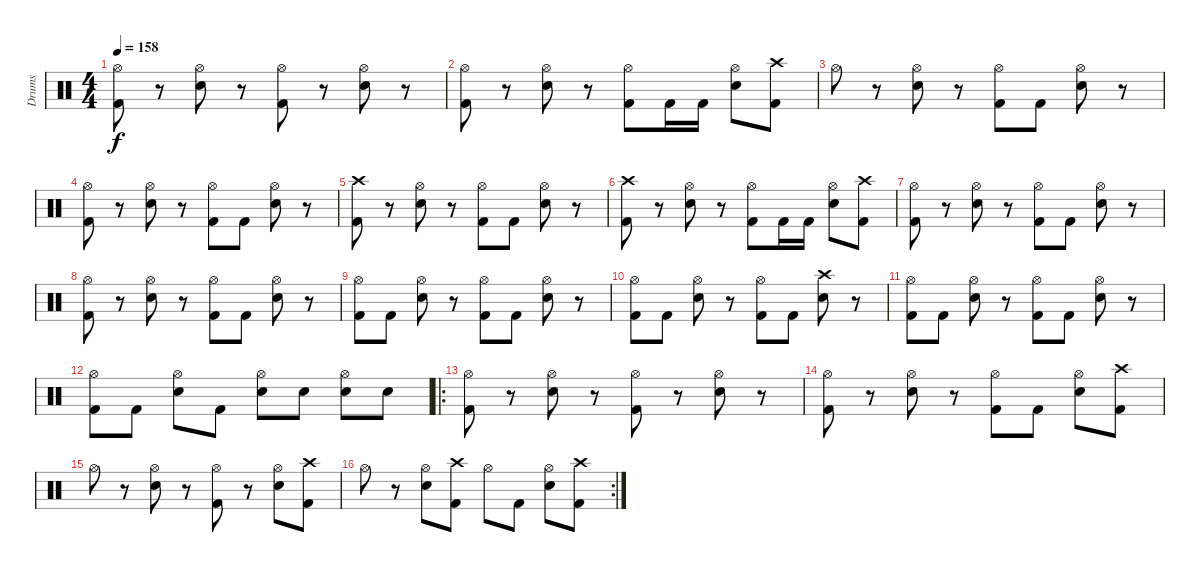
\track ("Drums" "Drums") {instrument percussion}
\staff {score}
\articulation defaults
\ts (4 4)
\tempo 158
\clef neutral
\ks c
("Hi-Hat (open)" "Kick (hit) 2").8{dy f} r.8 ("Hi-Hat (open)" "Snare (hit) 2").8 r.8 ("Hi-Hat (open)" "Kick (hit) 2").8 r.8 ("Hi-Hat (open)" "Snare (hit) 2").8 r.8 |
("Hi-Hat (open)" "Kick (hit) 2").8 r.8 ("Hi-Hat (open)" "Snare (hit) 2").8 r.8 ("Hi-Hat (open)" "Kick (hit) 2").8 "Kick (hit) 2".16 "Kick (hit) 2".16 ("Hi-Hat (open)" "Snare (hit) 2").8 ("Crash high (hit)" "Kick (hit) 2").8 |
"Hi-Hat (open)".8 r.8 ("Hi-Hat (open)" "Snare (hit) 2").8 r.8 ("Hi-Hat (open)" "Kick (hit) 2").8 "Kick (hit) 2".8 ("Hi-Hat (open)" "Snare (hit) 2").8 r.8 |
("Hi-Hat (open)" "Kick (hit) 2").8 r.8 ("Hi-Hat (open)" "Snare (hit) 2").8 r.8 ("Hi-Hat (open)" "Kick (hit) 2").8 "Kick (hit) 2".8 ("Hi-Hat (open)" "Snare (hit) 2").8 r.8 |
("Crash high (hit)" "Kick (hit) 2").8 r.8 ("Hi-Hat (open)" "Snare (hit) 2").8 r.8 ("Hi-Hat (open)" "Kick (hit) 2").8 "Kick (hit) 2".8 ("Hi-Hat (open)" "Snare (hit) 2").8 r.8 |
("Crash high (hit)" "Kick (hit) 2").8 r.8 ("Hi-Hat (open)" "Snare (hit) 2").8 r.8 ("Hi-Hat (open)" "Kick (hit) 2").8 "Kick (hit) 2".16 "Kick (hit) 2".16 ("Hi-Hat (open)" "Snare (hit) 2").8 ("Crash high (hit)" "Kick (hit) 2").8 |
("Hi-Hat (open)" "Kick (hit) 2").8 r.8 ("Hi-Hat (open)" "Snare (hit) 2").8 r.8 ("Hi-Hat (open)" "Kick (hit) 2").8 "Kick (hit) 2".8 ("Hi-Hat (open)" "Snare (hit) 2").8 r.8 |
("Hi-Hat (open)" "Kick (hit) 2").8 r.8 ("Hi-Hat (open)" "Snare (hit) 2").8 r.8 ("Hi-Hat (open)" "Kick (hit) 2").8 "Kick (hit) 2".8 ("Hi-Hat (open)" "Snare (hit) 2").8 r.8 |
("Hi-Hat (open)" "Kick (hit) 2").8 "Kick (hit) 2".8 ("Hi-Hat (open)" "Snare (hit) 2").8 r.8 ("Hi-Hat (open)" "Kick (hit) 2").8 "Kick (hit) 2".8 ("Hi-Hat (open)" "Snare (hit) 2").8 r.8 |
("Hi-Hat (open)" "Kick (hit) 2").8 "Kick (hit) 2".8 ("Hi-Hat (open)" "Snare (hit) 2").8 r.8 ("Hi-Hat (open)" "Kick (hit) 2").8 "Kick (hit) 2".8 ("Crash high (hit)" "Snare (hit) 2").8 r.8 |
("Hi-Hat (open)" "Kick (hit) 2").8 "Kick (hit) 2".8 ("Hi-Hat (open)" "Snare (hit) 2").8 r.8 ("Hi-Hat (open)" "Kick (hit) 2").8 "Kick (hit) 2".8 ("Hi-Hat (open)" "Snare (hit) 2").8 r.8 |
("Hi-Hat (open)" "Kick (hit) 2").8 "Kick (hit) 2".8 ("Hi-Hat (open)" "Snare (hit) 2").8 "Kick (hit) 2".8 ("Hi-Hat (open)" "Snare (hit) 2").8 "Snare (hit) 2".8 ("Hi-Hat (open)" "Snare (hit) 2").8 "Snare (hit) 2".8 |
\ro
("Hi-Hat (open)" "Kick (hit) 2").8 r.8 ("Hi-Hat (open)" "Snare (hit) 2").8 r.8 ("Hi-Hat (open)" "Kick (hit) 2").8 r.8 ("Hi-Hat (open)" "Snare (hit) 2").8 r.8 |
("Hi-Hat (open)" "Kick (hit) 2").8 r.8 ("Hi-Hat (open)" "Snare (hit) 2").8 r.8 ("Hi-Hat (open)" "Kick (hit) 2").8 "Kick (hit) 2".8 ("Hi-Hat (open)" "Snare (hit) 2").8 ("Crash high (hit)" "Kick (hit) 2").8 |
"Hi-Hat (open)".8 r.8 ("Hi-Hat (open)" "Snare (hit) 2").8 r.8 ("Hi-Hat (open)" "Kick (hit) 2").8 r.8 ("Hi-Hat (open)" "Snare (hit) 2").8 ("Crash high (hit)" "Kick (hit) 2").8 |
\rc 2 "Hi-Hat (open)".8
r.8 ("Hi-Hat (open)" "Snare (hit) 2").8 ("Crash high (hit)" "Kick (hit) 2").8 "Hi-Hat (open)".8 "Kick (hit) 2".8 ("Hi-Hat (open)" "Snare (hit) 2").8 ("Crash high (hit)" "Kick (hit) 2").8
